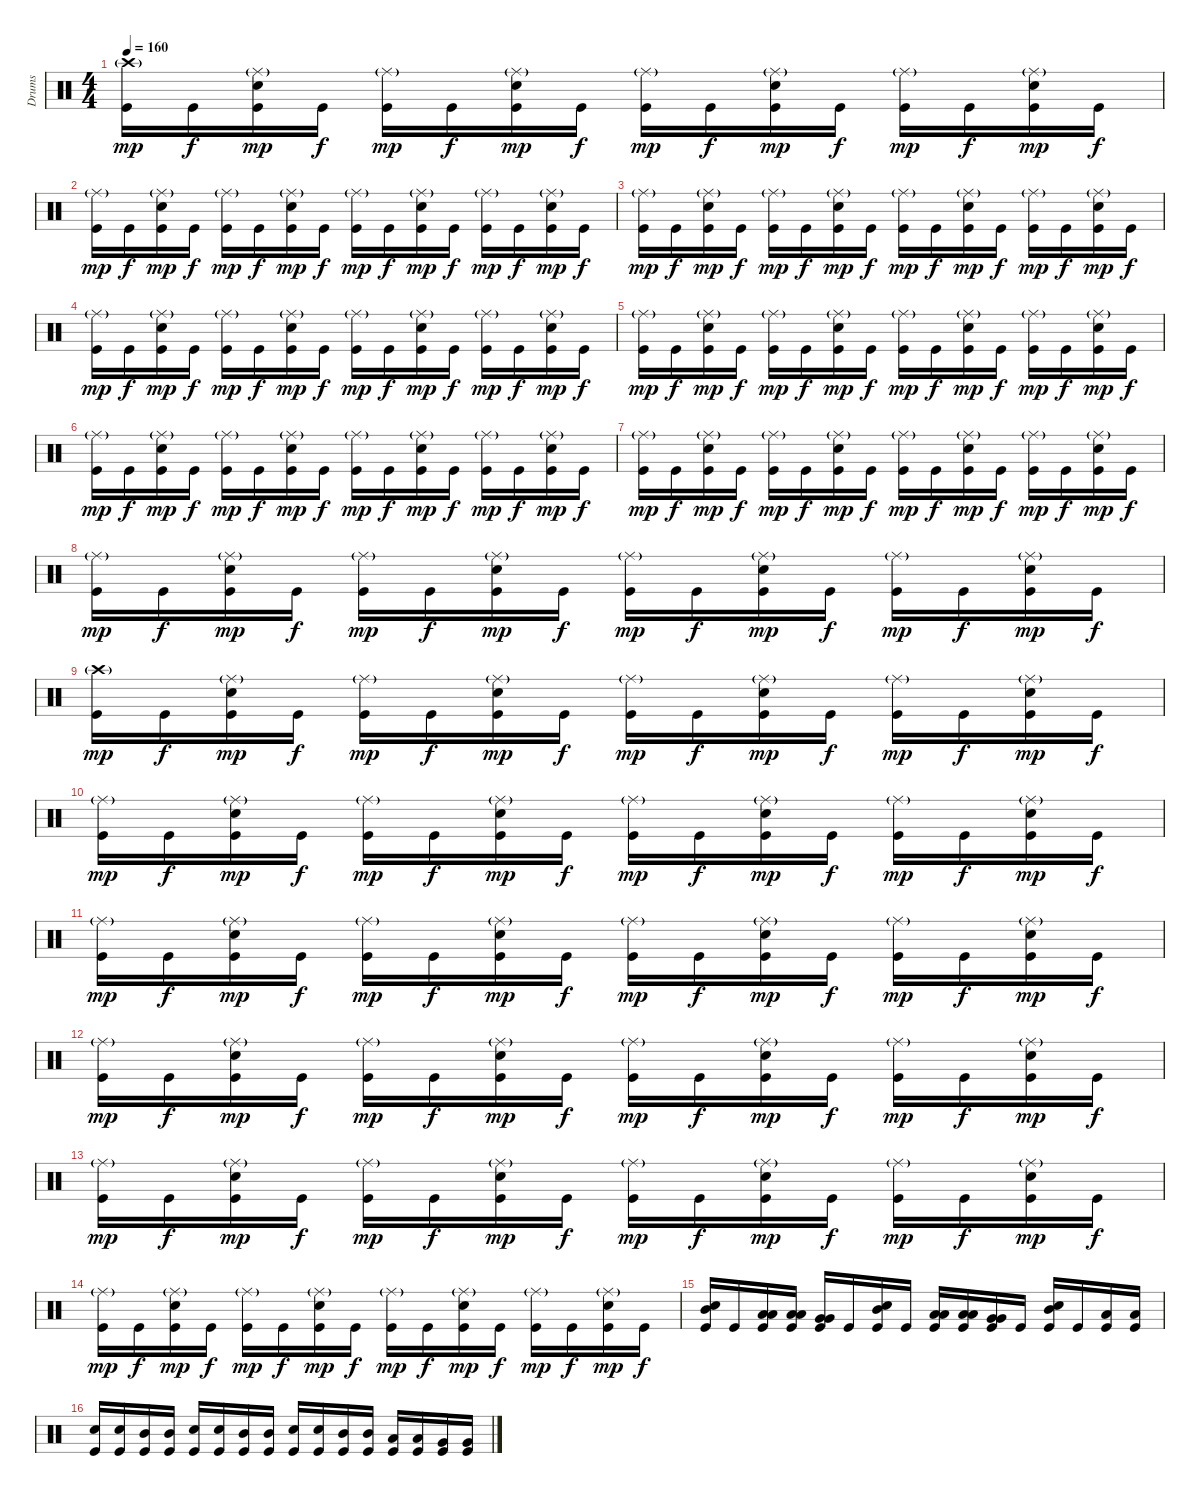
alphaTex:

\track ("Drums" "Drums") {instrument percussion}
\staff {score}
\articulation defaults
\ts (4 4)
\tempo 160
\clef neutral
\ks c
("Crash high (hit)"{g} "Kick (hit)").16{dy mp} "Kick (hit)".16{dy f} ("Ride (middle)"{g} "Snare (hit) 2" "Kick (hit)").16{dy mp} "Kick (hit)".16{dy f} ("Ride (middle)"{g} "Kick (hit)").16{dy mp} "Kick (hit)".16{dy f} ("Ride (middle)"{g} "Snare (hit) 2" "Kick (hit)").16{dy mp} "Kick (hit)".16{dy f} ("Ride (middle)"{g} "Kick (hit)").16{dy mp} "Kick (hit)".16{dy f} ("Ride (middle)"{g} "Snare (hit) 2" "Kick (hit)").16{dy mp} "Kick (hit)".16{dy f} ("Ride (middle)"{g} "Kick (hit)").16{dy mp} "Kick (hit)".16{dy f} ("Ride (middle)"{g} "Snare (hit) 2" "Kick (hit)").16{dy mp} "Kick (hit)".16{dy f} |
("Ride (middle)"{g} "Kick (hit)").16{dy mp} "Kick (hit)".16{dy f} ("Ride (middle)"{g} "Snare (hit) 2" "Kick (hit)").16{dy mp} "Kick (hit)".16{dy f} ("Ride (middle)"{g} "Kick (hit)").16{dy mp} "Kick (hit)".16{dy f} ("Ride (middle)"{g} "Snare (hit) 2" "Kick (hit)").16{dy mp} "Kick (hit)".16{dy f} ("Ride (middle)"{g} "Kick (hit)").16{dy mp} "Kick (hit)".16{dy f} ("Ride (middle)"{g} "Snare (hit) 2" "Kick (hit)").16{dy mp} "Kick (hit)".16{dy f} ("Ride (middle)"{g} "Kick (hit)").16{dy mp} "Kick (hit)".16{dy f} ("Ride (middle)"{g} "Snare (hit) 2" "Kick (hit)").16{dy mp} "Kick (hit)".16{dy f} |
("Ride (middle)"{g} "Kick (hit)").16{dy mp} "Kick (hit)".16{dy f} ("Ride (middle)"{g} "Snare (hit) 2" "Kick (hit)").16{dy mp} "Kick (hit)".16{dy f} ("Ride (middle)"{g} "Kick (hit)").16{dy mp} "Kick (hit)".16{dy f} ("Ride (middle)"{g} "Snare (hit) 2" "Kick (hit)").16{dy mp} "Kick (hit)".16{dy f} ("Ride (middle)"{g} "Kick (hit)").16{dy mp} "Kick (hit)".16{dy f} ("Ride (middle)"{g} "Snare (hit) 2" "Kick (hit)").16{dy mp} "Kick (hit)".16{dy f} ("Ride (middle)"{g} "Kick (hit)").16{dy mp} "Kick (hit)".16{dy f} ("Ride (middle)"{g} "Snare (hit) 2" "Kick (hit)").16{dy mp} "Kick (hit)".16{dy f} |
("Ride (middle)"{g} "Kick (hit)").16{dy mp} "Kick (hit)".16{dy f} ("Ride (middle)"{g} "Snare (hit) 2" "Kick (hit)").16{dy mp} "Kick (hit)".16{dy f} ("Ride (middle)"{g} "Kick (hit)").16{dy mp} "Kick (hit)".16{dy f} ("Ride (middle)"{g} "Snare (hit) 2" "Kick (hit)").16{dy mp} "Kick (hit)".16{dy f} ("Ride (middle)"{g} "Kick (hit)").16{dy mp} "Kick (hit)".16{dy f} ("Ride (middle)"{g} "Snare (hit) 2" "Kick (hit)").16{dy mp} "Kick (hit)".16{dy f} ("Ride (middle)"{g} "Kick (hit)").16{dy mp} "Kick (hit)".16{dy f} ("Ride (middle)"{g} "Snare (hit) 2" "Kick (hit)").16{dy mp} "Kick (hit)".16{dy f} |
("Ride (middle)"{g} "Kick (hit)").16{dy mp} "Kick (hit)".16{dy f} ("Ride (middle)"{g} "Snare (hit) 2" "Kick (hit)").16{dy mp} "Kick (hit)".16{dy f} ("Ride (middle)"{g} "Kick (hit)").16{dy mp} "Kick (hit)".16{dy f} ("Ride (middle)"{g} "Snare (hit) 2" "Kick (hit)").16{dy mp} "Kick (hit)".16{dy f} ("Ride (middle)"{g} "Kick (hit)").16{dy mp} "Kick (hit)".16{dy f} ("Ride (middle)"{g} "Snare (hit) 2" "Kick (hit)").16{dy mp} "Kick (hit)".16{dy f} ("Ride (middle)"{g} "Kick (hit)").16{dy mp} "Kick (hit)".16{dy f} ("Ride (middle)"{g} "Snare (hit) 2" "Kick (hit)").16{dy mp} "Kick (hit)".16{dy f} |
("Ride (middle)"{g} "Kick (hit)").16{dy mp} "Kick (hit)".16{dy f} ("Ride (middle)"{g} "Snare (hit) 2" "Kick (hit)").16{dy mp} "Kick (hit)".16{dy f} ("Ride (middle)"{g} "Kick (hit)").16{dy mp} "Kick (hit)".16{dy f} ("Ride (middle)"{g} "Snare (hit) 2" "Kick (hit)").16{dy mp} "Kick (hit)".16{dy f} ("Ride (middle)"{g} "Kick (hit)").16{dy mp} "Kick (hit)".16{dy f} ("Ride (middle)"{g} "Snare (hit) 2" "Kick (hit)").16{dy mp} "Kick (hit)".16{dy f} ("Ride (middle)"{g} "Kick (hit)").16{dy mp} "Kick (hit)".16{dy f} ("Ride (middle)"{g} "Snare (hit) 2" "Kick (hit)").16{dy mp} "Kick (hit)".16{dy f} |
("Ride (middle)"{g} "Kick (hit)").16{dy mp} "Kick (hit)".16{dy f} ("Ride (middle)"{g} "Snare (hit) 2" "Kick (hit)").16{dy mp} "Kick (hit)".16{dy f} ("Ride (middle)"{g} "Kick (hit)").16{dy mp} "Kick (hit)".16{dy f} ("Ride (middle)"{g} "Snare (hit) 2" "Kick (hit)").16{dy mp} "Kick (hit)".16{dy f} ("Ride (middle)"{g} "Kick (hit)").16{dy mp} "Kick (hit)".16{dy f} ("Ride (middle)"{g} "Snare (hit) 2" "Kick (hit)").16{dy mp} "Kick (hit)".16{dy f} ("Ride (middle)"{g} "Kick (hit)").16{dy mp} "Kick (hit)".16{dy f} ("Ride (middle)"{g} "Snare (hit) 2" "Kick (hit)").16{dy mp} "Kick (hit)".16{dy f} |
("Ride (middle)"{g} "Kick (hit)").16{dy mp} "Kick (hit)".16{dy f} ("Ride (middle)"{g} "Snare (hit) 2" "Kick (hit)").16{dy mp} "Kick (hit)".16{dy f} ("Ride (middle)"{g} "Kick (hit)").16{dy mp} "Kick (hit)".16{dy f} ("Ride (middle)"{g} "Snare (hit) 2" "Kick (hit)").16{dy mp} "Kick (hit)".16{dy f} ("Ride (middle)"{g} "Kick (hit)").16{dy mp} "Kick (hit)".16{dy f} ("Ride (middle)"{g} "Snare (hit) 2" "Kick (hit)").16{dy mp} "Kick (hit)".16{dy f} ("Ride (middle)"{g} "Kick (hit)").16{dy mp} "Kick (hit)".16{dy f} ("Ride (middle)"{g} "Snare (hit) 2" "Kick (hit)").16{dy mp} "Kick (hit)".16{dy f} |
("Crash high (hit)"{g} "Kick (hit)").16{dy mp} "Kick (hit)".16{dy f} ("Ride (middle)"{g} "Snare (hit) 2" "Kick (hit)").16{dy mp} "Kick (hit)".16{dy f} ("Ride (middle)"{g} "Kick (hit)").16{dy mp} "Kick (hit)".16{dy f} ("Ride (middle)"{g} "Snare (hit) 2" "Kick (hit)").16{dy mp} "Kick (hit)".16{dy f} ("Ride (middle)"{g} "Kick (hit)").16{dy mp} "Kick (hit)".16{dy f} ("Ride (middle)"{g} "Snare (hit) 2" "Kick (hit)").16{dy mp} "Kick (hit)".16{dy f} ("Ride (middle)"{g} "Kick (hit)").16{dy mp} "Kick (hit)".16{dy f} ("Ride (middle)"{g} "Snare (hit) 2" "Kick (hit)").16{dy mp} "Kick (hit)".16{dy f} |
("Ride (middle)"{g} "Kick (hit)").16{dy mp} "Kick (hit)".16{dy f} ("Ride (middle)"{g} "Snare (hit) 2" "Kick (hit)").16{dy mp} "Kick (hit)".16{dy f} ("Ride (middle)"{g} "Kick (hit)").16{dy mp} "Kick (hit)".16{dy f} ("Ride (middle)"{g} "Snare (hit) 2" "Kick (hit)").16{dy mp} "Kick (hit)".16{dy f} ("Ride (middle)"{g} "Kick (hit)").16{dy mp} "Kick (hit)".16{dy f} ("Ride (middle)"{g} "Snare (hit) 2" "Kick (hit)").16{dy mp} "Kick (hit)".16{dy f} ("Ride (middle)"{g} "Kick (hit)").16{dy mp} "Kick (hit)".16{dy f} ("Ride (middle)"{g} "Snare (hit) 2" "Kick (hit)").16{dy mp} "Kick (hit)".16{dy f} |
("Ride (middle)"{g} "Kick (hit)").16{dy mp} "Kick (hit)".16{dy f} ("Ride (middle)"{g} "Snare (hit) 2" "Kick (hit)").16{dy mp} "Kick (hit)".16{dy f} ("Ride (middle)"{g} "Kick (hit)").16{dy mp} "Kick (hit)".16{dy f} ("Ride (middle)"{g} "Snare (hit) 2" "Kick (hit)").16{dy mp} "Kick (hit)".16{dy f} ("Ride (middle)"{g} "Kick (hit)").16{dy mp} "Kick (hit)".16{dy f} ("Ride (middle)"{g} "Snare (hit) 2" "Kick (hit)").16{dy mp} "Kick (hit)".16{dy f} ("Ride (middle)"{g} "Kick (hit)").16{dy mp} "Kick (hit)".16{dy f} ("Ride (middle)"{g} "Snare (hit) 2" "Kick (hit)").16{dy mp} "Kick (hit)".16{dy f} |
("Ride (middle)"{g} "Kick (hit)").16{dy mp} "Kick (hit)".16{dy f} ("Ride (middle)"{g} "Snare (hit) 2" "Kick (hit)").16{dy mp} "Kick (hit)".16{dy f} ("Ride (middle)"{g} "Kick (hit)").16{dy mp} "Kick (hit)".16{dy f} ("Ride (middle)"{g} "Snare (hit) 2" "Kick (hit)").16{dy mp} "Kick (hit)".16{dy f} ("Ride (middle)"{g} "Kick (hit)").16{dy mp} "Kick (hit)".16{dy f} ("Ride (middle)"{g} "Snare (hit) 2" "Kick (hit)").16{dy mp} "Kick (hit)".16{dy f} ("Ride (middle)"{g} "Kick (hit)").16{dy mp} "Kick (hit)".16{dy f} ("Ride (middle)"{g} "Snare (hit) 2" "Kick (hit)").16{dy mp} "Kick (hit)".16{dy f} |
("Ride (middle)"{g} "Kick (hit)").16{dy mp} "Kick (hit)".16{dy f} ("Ride (middle)"{g} "Snare (hit) 2" "Kick (hit)").16{dy mp} "Kick (hit)".16{dy f} ("Ride (middle)"{g} "Kick (hit)").16{dy mp} "Kick (hit)".16{dy f} ("Ride (middle)"{g} "Snare (hit) 2" "Kick (hit)").16{dy mp} "Kick (hit)".16{dy f} ("Ride (middle)"{g} "Kick (hit)").16{dy mp} "Kick (hit)".16{dy f} ("Ride (middle)"{g} "Snare (hit) 2" "Kick (hit)").16{dy mp} "Kick (hit)".16{dy f} ("Ride (middle)"{g} "Kick (hit)").16{dy mp} "Kick (hit)".16{dy f} ("Ride (middle)"{g} "Snare (hit) 2" "Kick (hit)").16{dy mp} "Kick (hit)".16{dy f} |
("Ride (middle)"{g} "Kick (hit)").16{dy mp} "Kick (hit)".16{dy f} ("Ride (middle)"{g} "Snare (hit) 2" "Kick (hit)").16{dy mp} "Kick (hit)".16{dy f} ("Ride (middle)"{g} "Kick (hit)").16{dy mp} "Kick (hit)".16{dy f} ("Ride (middle)"{g} "Snare (hit) 2" "Kick (hit)").16{dy mp} "Kick (hit)".16{dy f} ("Ride (middle)"{g} "Kick (hit)").16{dy mp} "Kick (hit)".16{dy f} ("Ride (middle)"{g} "Snare (hit) 2" "Kick (hit)").16{dy mp} "Kick (hit)".16{dy f} ("Ride (middle)"{g} "Kick (hit)").16{dy mp} "Kick (hit)".16{dy f} ("Ride (middle)"{g} "Snare (hit) 2" "Kick (hit)").16{dy mp} "Kick (hit)".16{dy f} |
("Snare (hit) 2" "Mid Tom (hit)" "Kick (hit)").16 "Kick (hit)".16 ("Low Tom (hit)" "Low Tom (hit)" "Kick (hit)").16 ("Low Tom (hit)" "Low Tom (hit)" "Kick (hit)").16 ("Very Low Tom (hit)" "Very Low Tom (hit)" "Kick (hit)").16 "Kick (hit)".16 ("Snare (hit) 2" "Mid Tom (hit)" "Kick (hit)").16 "Kick (hit)".16 ("Low Tom (hit)" "Low Tom (hit)" "Kick (hit)").16 ("Low Tom (hit)" "Low Tom (hit)" "Kick (hit)").16 ("Very Low Tom (hit)" "Very Low Tom (hit)" "Kick (hit)").16 "Kick (hit)".16 ("Snare (hit) 2" "Mid Tom (hit)" "Kick (hit)").16 "Kick (hit)".16 ("Low Tom (hit)" "Kick (hit)").16 ("Low Tom (hit)" "Kick (hit)").16 |
("Snare (hit) 2" "Kick (hit)").16 ("Snare (hit) 2" "Kick (hit)").16 ("Mid Tom (hit)" "Kick (hit)").16 ("Mid Tom (hit)" "Kick (hit)").16 ("Snare (hit) 2" "Kick (hit)").16 ("Snare (hit) 2" "Kick (hit)").16 ("Mid Tom (hit)" "Kick (hit)").16 ("Mid Tom (hit)" "Kick (hit)").16 ("Snare (hit) 2" "Kick (hit)").16 ("Snare (hit) 2" "Kick (hit)").16 ("Mid Tom (hit)" "Kick (hit)").16 ("Mid Tom (hit)" "Kick (hit)").16 ("Low Tom (hit)" "Kick (hit)").16 ("Low Tom (hit)" "Kick (hit)").16 ("Very Low Tom (hit)" "Kick (hit)").16 ("Very Low Tom (hit)" "Kick (hit)").16
